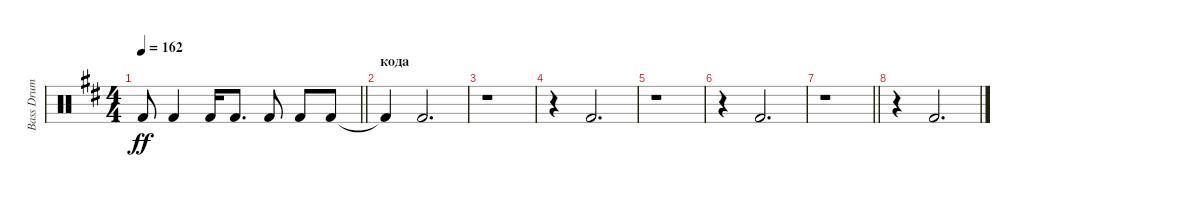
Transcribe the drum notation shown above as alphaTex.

\track ("Bass Drum" "Bass Drum") {instrument percussion}
\staff {score}
\articulation defaults
\ts (4 4)
\tempo 162
\clef neutral
\barLineRight lightlight
\ks bminor "Kick (hit) 2"{t}.8{dy ff} "Kick (hit) 2".4 "Kick (hit) 2".16 "Kick (hit) 2".8{d} "Kick (hit) 2".8 "Kick (hit) 2".8 "Kick (hit) 2".8
|
\section ("" "кода")
"Kick (hit) 2"{t}.4 "Kick (hit) 2".2{d} |
r.1 |
r.4 "Kick (hit) 2".2{d} |
r.1 |
r.4 "Kick (hit) 2".2{d} |
\barLineRight lightlight
r.1 |
r.4 "Kick (hit) 2".2{d}
